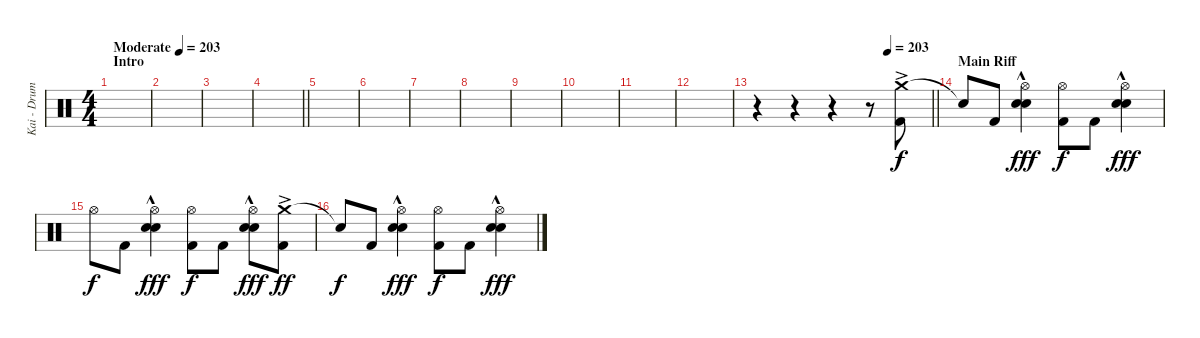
\track ("Kai - Drums" "Kai - Drum") {instrument percussion}
\staff {score}
\articulation defaults
\ts (4 4)
\section ("" "Intro")
\tempo (203 "Moderate")
\tempo 100
\tempo (203 "Moderate")
\clef neutral
\ks c
|
|
|
\barLineRight lightlight
|
\section ("" "")
|
|
|
|
|
|
|
|
\tempo (203 0.75)
\barLineRight lightlight
r.4 r.4 r.4 r.8 ("Crash medium (hit)"{ac} "Kick (hit) 2").8 |
\section ("" "Main Riff")
"Snare (hit)"{t}.8{dy f} "Kick (hit) 2".8 ("Hi-Hat (open)" "Electric Snare (hit)"{hac} "Snare (hit) 2"{hac}).4{dy fff} ("Hi-Hat (open)" "Kick (hit) 2").8{dy f} "Kick (hit) 2".8 ("Hi-Hat (open)" "Electric Snare (hit)"{hac} "Snare (hit) 2"{hac}).4{dy fff} |
"Hi-Hat (open)".8{dy f} "Kick (hit) 2".8 ("Hi-Hat (open)" "Electric Snare (hit)"{hac} "Snare (hit) 2"{hac}).4{dy fff} ("Hi-Hat (open)" "Kick (hit) 2").8{dy f} "Kick (hit) 2".8 ("Hi-Hat (open)" "Electric Snare (hit)"{hac} "Snare (hit) 2"{hac}).8{dy fff} ("Crash medium (hit)"{ac} "Kick (hit) 2").8{dy ff} |
"Snare (hit)"{t}.8{dy f} "Kick (hit) 2".8 ("Hi-Hat (open)" "Electric Snare (hit)"{hac} "Snare (hit) 2"{hac}).4{dy fff} ("Hi-Hat (open)" "Kick (hit) 2").8{dy f} "Kick (hit) 2".8 ("Hi-Hat (open)" "Electric Snare (hit)"{hac} "Snare (hit) 2"{hac}).4{dy fff}
